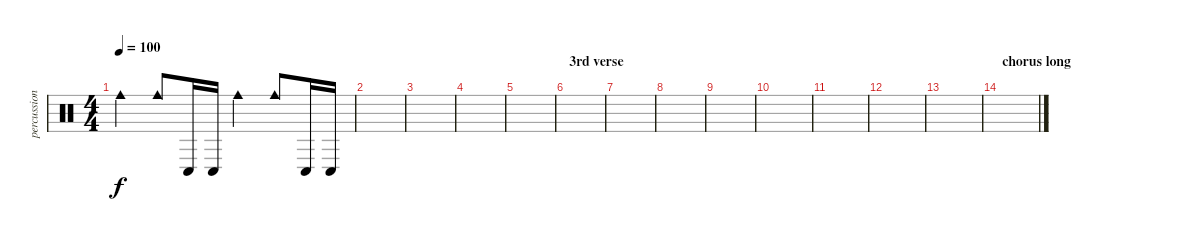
\track ("percussions" "percussion") {instrument percussion}
\staff {score}
\articulation defaults
\ts (4 4)
\tempo 100
\clef neutral
\ks c "Cowbell medium (hit)".4{dy f} "Cowbell medium (hit)".8 "Conga low (hit)".16 "Conga low (hit)".16 "Cowbell medium (hit)".4 "Cowbell medium (hit)".8 "Conga low (hit)".16 "Conga low (hit)".16
|
|
|
|
|
\section ("" "3rd verse")
|
|
|
|
|
|
|
|
\section ("" "chorus long")
